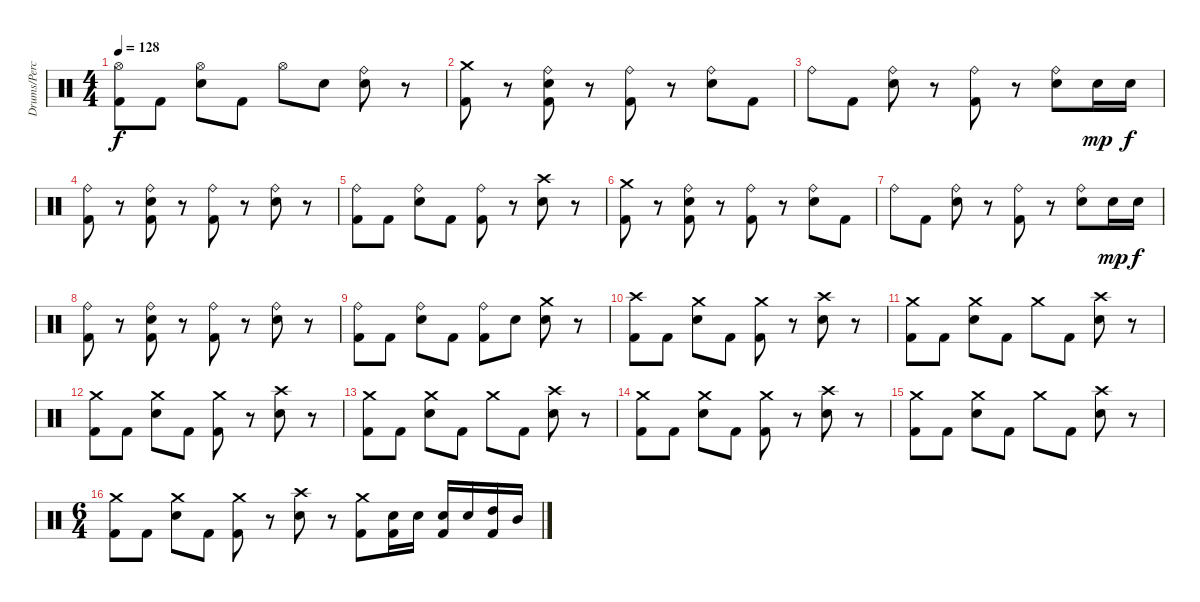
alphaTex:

\track ("Drums/Percussion" "Drums/Perc") {instrument percussion}
\staff {score}
\articulation defaults
\ts (4 4)
\tempo 128
\clef neutral
\ks c
("Hi-Hat (open)" "Kick (hit) 2").8{dy f} "Kick (hit) 2".8 ("Hi-Hat (open)" "Electric Snare (hit)").8 "Kick (hit) 2".8 "Hi-Hat (open)".8 "Electric Snare (hit)".8 ("Ride (bell)" "Electric Snare (hit)").8 r.8 |
("Crash medium (hit)" "Kick (hit) 2").8 r.8 ("Ride (bell)" "Electric Snare (hit)" "Kick (hit) 2").8 r.8 ("Ride (bell)" "Kick (hit) 2").8 r.8 ("Ride (bell)" "Electric Snare (hit)").8 "Kick (hit) 2".8 |
"Ride (bell)".8 "Kick (hit) 2".8 ("Ride (bell)" "Electric Snare (hit)").8 r.8 ("Ride (bell)" "Kick (hit) 2").8 r.8 ("Ride (bell)" "Electric Snare (hit)").8 "Electric Snare (hit)".16{dy mp} "Electric Snare (hit)".16{dy f} |
("Ride (bell)" "Kick (hit) 2").8 r.8 ("Ride (bell)" "Electric Snare (hit)" "Kick (hit) 2").8 r.8 ("Ride (bell)" "Kick (hit) 2").8 r.8 ("Ride (bell)" "Electric Snare (hit)").8 r.8 |
("Ride (bell)" "Kick (hit) 2").8 "Kick (hit) 2".8 ("Ride (bell)" "Electric Snare (hit)").8 "Kick (hit) 2".8 ("Ride (bell)" "Kick (hit) 2").8 r.8 ("Crash high (hit)" "Electric Snare (hit)").8 r.8 |
("Crash medium (hit)" "Kick (hit) 2").8 r.8 ("Ride (bell)" "Electric Snare (hit)" "Kick (hit) 2").8 r.8 ("Ride (bell)" "Kick (hit) 2").8 r.8 ("Ride (bell)" "Electric Snare (hit)").8 "Kick (hit) 2".8 |
"Ride (bell)".8 "Kick (hit) 2".8 ("Ride (bell)" "Electric Snare (hit)").8 r.8 ("Ride (bell)" "Kick (hit) 2").8 r.8 ("Ride (bell)" "Electric Snare (hit)").8 "Electric Snare (hit)".16{dy mp} "Electric Snare (hit)".16{dy f} |
("Ride (bell)" "Kick (hit) 2").8 r.8 ("Ride (bell)" "Electric Snare (hit)" "Kick (hit) 2").8 r.8 ("Ride (bell)" "Kick (hit) 2").8 r.8 ("Ride (bell)" "Electric Snare (hit)").8 r.8 |
("Ride (bell)" "Kick (hit) 2").8 "Kick (hit) 2".8 ("Ride (bell)" "Electric Snare (hit)").8 "Kick (hit) 2".8 ("Ride (bell)" "Kick (hit) 2").8 "Electric Snare (hit)".8 ("Crash medium (hit)" "Electric Snare (hit)").8 r.8 |
("Crash high (hit)" "Kick (hit) 2").8 "Kick (hit) 2".8 ("Crash medium (hit)" "Electric Snare (hit)").8 "Kick (hit) 2".8 ("Crash medium (hit)" "Kick (hit) 2").8 r.8 ("Crash high (hit)" "Electric Snare (hit)").8 r.8 |
("Crash medium (hit)" "Kick (hit) 2").8 "Kick (hit) 2".8 ("Crash medium (hit)" "Electric Snare (hit)").8 "Kick (hit) 2".8 "Crash medium (hit)".8 "Kick (hit) 2".8 ("Crash high (hit)" "Electric Snare (hit)").8 r.8 |
("Crash medium (hit)" "Kick (hit) 2").8 "Kick (hit) 2".8 ("Crash medium (hit)" "Electric Snare (hit)").8 "Kick (hit) 2".8 ("Crash medium (hit)" "Kick (hit) 2").8 r.8 ("Crash high (hit)" "Electric Snare (hit)").8 r.8 |
("Crash medium (hit)" "Kick (hit) 2").8 "Kick (hit) 2".8 ("Crash medium (hit)" "Electric Snare (hit)").8 "Kick (hit) 2".8 "Crash medium (hit)".8 "Kick (hit) 2".8 ("Crash high (hit)" "Electric Snare (hit)").8 r.8 |
("Crash medium (hit)" "Kick (hit) 2").8 "Kick (hit) 2".8 ("Crash medium (hit)" "Electric Snare (hit)").8 "Kick (hit) 2".8 ("Crash medium (hit)" "Kick (hit) 2").8 r.8 ("Crash high (hit)" "Electric Snare (hit)").8 r.8 |
("Crash medium (hit)" "Kick (hit) 2").8 "Kick (hit) 2".8 ("Crash medium (hit)" "Electric Snare (hit)").8 "Kick (hit) 2".8 "Crash medium (hit)".8 "Kick (hit) 2".8 ("Crash high (hit)" "Electric Snare (hit)").8 r.8 |
\ts (6 4)
("Crash medium (hit)" "Kick (hit) 2").8 "Kick (hit) 2".8 ("Crash medium (hit)" "Electric Snare (hit)").8 "Kick (hit) 2".8 ("Crash medium (hit)" "Kick (hit) 2").8 r.8 ("Crash high (hit)" "Electric Snare (hit)").8 r.8 ("Crash medium (hit)" "Kick (hit) 2").8 ("Electric Snare (hit)" "Kick (hit) 2").16 "Electric Snare (hit)".16 ("Electric Snare (hit)" "Kick (hit) 2").16 "Electric Snare (hit)".16 ("High Tom (hit)" "Kick (hit) 2").16 "Mid Tom (hit)".16
